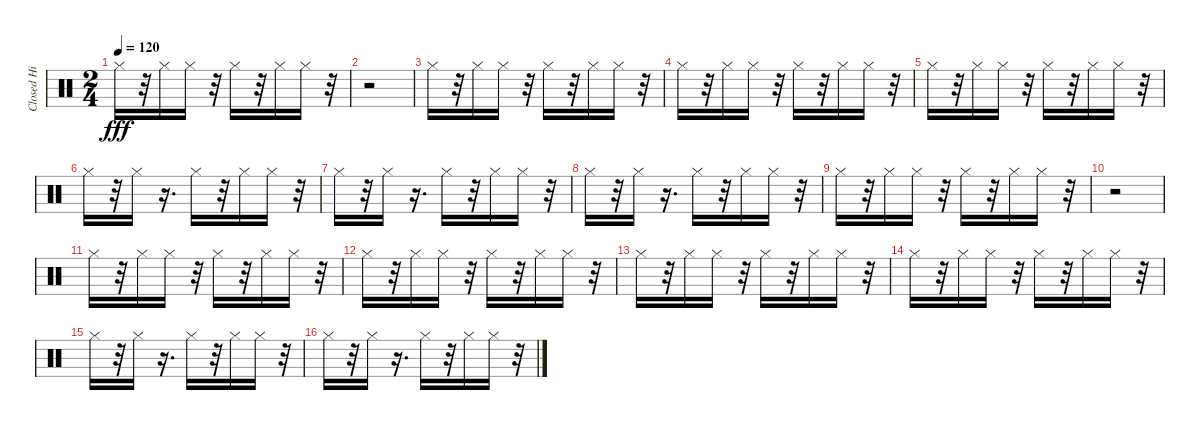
\track ("Closed Hi Hat (1) (1) (1) (1)" "Closed Hi ") {instrument percussion}
\staff {score}
\articulation defaults
\ts (2 4)
\tempo 120
\clef neutral
\ks c "Hi-Hat (closed)".16{dy fff}
r.32 "Hi-Hat (closed)".16 "Hi-Hat (closed)".16 r.32 "Hi-Hat (closed)".16 r.32 "Hi-Hat (closed)".16 "Hi-Hat (closed)".16 r.32 |
r.2 |
"Hi-Hat (closed)".16 r.32 "Hi-Hat (closed)".16 "Hi-Hat (closed)".16 r.32 "Hi-Hat (closed)".16 r.32 "Hi-Hat (closed)".16 "Hi-Hat (closed)".16 r.32 |
"Hi-Hat (closed)".16 r.32 "Hi-Hat (closed)".16 "Hi-Hat (closed)".16 r.32 "Hi-Hat (closed)".16 r.32 "Hi-Hat (closed)".16 "Hi-Hat (closed)".16 r.32 |
"Hi-Hat (closed)".16 r.32 "Hi-Hat (closed)".16 "Hi-Hat (closed)".16 r.32 "Hi-Hat (closed)".16 r.32 "Hi-Hat (closed)".16 "Hi-Hat (closed)".16 r.32 |
"Hi-Hat (closed)".16 r.32 "Hi-Hat (closed)".16 r.16{d} "Hi-Hat (closed)".16 r.32 "Hi-Hat (closed)".16 "Hi-Hat (closed)".16 r.32 |
"Hi-Hat (closed)".16 r.32 "Hi-Hat (closed)".16 r.16{d} "Hi-Hat (closed)".16 r.32 "Hi-Hat (closed)".16 "Hi-Hat (closed)".16 r.32 |
"Hi-Hat (closed)".16 r.32 "Hi-Hat (closed)".16 r.16{d} "Hi-Hat (closed)".16 r.32 "Hi-Hat (closed)".16 "Hi-Hat (closed)".16 r.32 |
"Hi-Hat (closed)".16 r.32 "Hi-Hat (closed)".16 "Hi-Hat (closed)".16 r.32 "Hi-Hat (closed)".16 r.32 "Hi-Hat (closed)".16 "Hi-Hat (closed)".16 r.32 |
r.2 |
"Hi-Hat (closed)".16 r.32 "Hi-Hat (closed)".16 "Hi-Hat (closed)".16 r.32 "Hi-Hat (closed)".16 r.32 "Hi-Hat (closed)".16 "Hi-Hat (closed)".16 r.32 |
"Hi-Hat (closed)".16 r.32 "Hi-Hat (closed)".16 "Hi-Hat (closed)".16 r.32 "Hi-Hat (closed)".16 r.32 "Hi-Hat (closed)".16 "Hi-Hat (closed)".16 r.32 |
"Hi-Hat (closed)".16 r.32 "Hi-Hat (closed)".16 "Hi-Hat (closed)".16 r.32 "Hi-Hat (closed)".16 r.32 "Hi-Hat (closed)".16 "Hi-Hat (closed)".16 r.32 |
"Hi-Hat (closed)".16 r.32 "Hi-Hat (closed)".16 "Hi-Hat (closed)".16 r.32 "Hi-Hat (closed)".16 r.32 "Hi-Hat (closed)".16 "Hi-Hat (closed)".16 r.32 |
"Hi-Hat (closed)".16 r.32 "Hi-Hat (closed)".16 r.16{d} "Hi-Hat (closed)".16 r.32 "Hi-Hat (closed)".16 "Hi-Hat (closed)".16 r.32 |
"Hi-Hat (closed)".16 r.32 "Hi-Hat (closed)".16 r.16{d} "Hi-Hat (closed)".16 r.32 "Hi-Hat (closed)".16 "Hi-Hat (closed)".16 r.32
